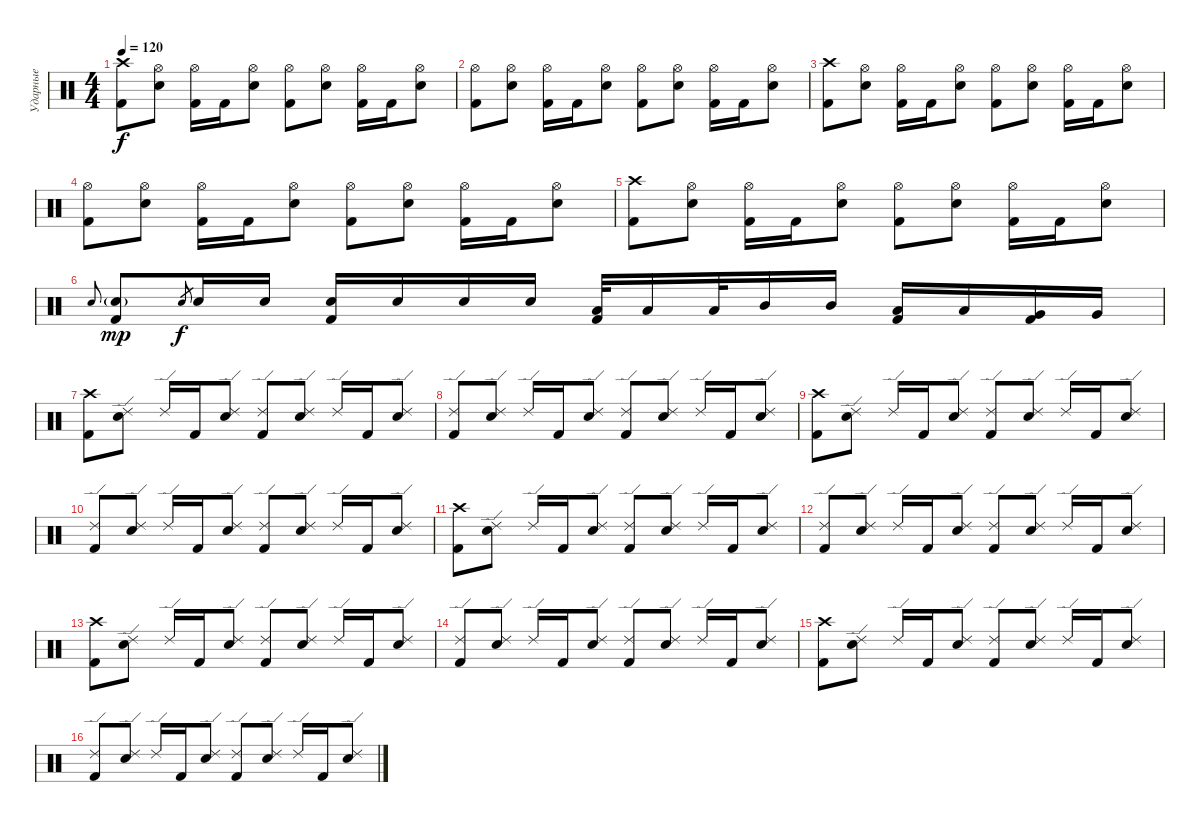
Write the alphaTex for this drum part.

\track ("Ударные" "Ударные") {instrument percussion}
\staff {score}
\articulation defaults
\ts (4 4)
\tempo 120
\clef neutral
\ks c
("Kick (hit) 2" "Crash high (hit)").8{dy f} ("Electric Snare (hit)" "Hi-Hat (open)").8 ("Kick (hit) 2" "Hi-Hat (open)").16 "Kick (hit) 2".16 ("Electric Snare (hit)" "Hi-Hat (open)").8 ("Kick (hit) 2" "Hi-Hat (open)").8 ("Electric Snare (hit)" "Hi-Hat (open)").8 ("Kick (hit) 2" "Hi-Hat (open)").16 "Kick (hit) 2".16 ("Electric Snare (hit)" "Hi-Hat (open)").8 |
("Kick (hit) 2" "Hi-Hat (open)").8 ("Electric Snare (hit)" "Hi-Hat (open)").8 ("Kick (hit) 2" "Hi-Hat (open)").16 "Kick (hit) 2".16 ("Electric Snare (hit)" "Hi-Hat (open)").8 ("Kick (hit) 2" "Hi-Hat (open)").8 ("Electric Snare (hit)" "Hi-Hat (open)").8 ("Kick (hit) 2" "Hi-Hat (open)").16 "Kick (hit) 2".16 ("Electric Snare (hit)" "Hi-Hat (open)").8 |
("Kick (hit) 2" "Crash high (hit)").8 ("Electric Snare (hit)" "Hi-Hat (open)").8 ("Kick (hit) 2" "Hi-Hat (open)").16 "Kick (hit) 2".16 ("Electric Snare (hit)" "Hi-Hat (open)").8 ("Kick (hit) 2" "Hi-Hat (open)").8 ("Electric Snare (hit)" "Hi-Hat (open)").8 ("Kick (hit) 2" "Hi-Hat (open)").16 "Kick (hit) 2".16 ("Electric Snare (hit)" "Hi-Hat (open)").8 |
("Kick (hit) 2" "Hi-Hat (open)").8 ("Electric Snare (hit)" "Hi-Hat (open)").8 ("Kick (hit) 2" "Hi-Hat (open)").16 "Kick (hit) 2".16 ("Electric Snare (hit)" "Hi-Hat (open)").8 ("Kick (hit) 2" "Hi-Hat (open)").8 ("Electric Snare (hit)" "Hi-Hat (open)").8 ("Kick (hit) 2" "Hi-Hat (open)").16 "Kick (hit) 2".16 ("Electric Snare (hit)" "Hi-Hat (open)").8 |
("Kick (hit) 2" "Crash high (hit)").8 ("Electric Snare (hit)" "Hi-Hat (open)").8 ("Kick (hit) 2" "Hi-Hat (open)").16 "Kick (hit) 2".16 ("Electric Snare (hit)" "Hi-Hat (open)").8 ("Kick (hit) 2" "Hi-Hat (open)").8 ("Electric Snare (hit)" "Hi-Hat (open)").8 ("Kick (hit) 2" "Hi-Hat (open)").16 "Kick (hit) 2".16 ("Electric Snare (hit)" "Hi-Hat (open)").8 |
"Electric Snare (hit)".8{gr onbeat} ("Kick (hit) 2" "Electric Snare (hit)"{g}).8{dy mp} "Electric Snare (hit)".8{gr dy f} "Electric Snare (hit)".16 "Electric Snare (hit)".16 ("Electric Snare (hit)" "Kick (hit) 2").16 "Electric Snare (hit)".16 "Electric Snare (hit)".16 "Electric Snare (hit)".16 ("Low Tom (hit)" "Kick (hit) 2").32 "Low Tom (hit)".16 "Low Tom (hit)".32 "Mid Tom (hit)".16 "Mid Tom (hit)".16 ("Low Tom (hit)" "Kick (hit) 2").16 "Low Tom (hit)".16 ("Very Low Tom (hit)" "Kick (hit) 2").16 "Very Low Tom (hit)".16 |
("Kick (hit) 2" "Crash high (hit)").8 ("Electric Snare (hit)" "Ride (edge) 2").8 "Ride (edge) 2".16 "Kick (hit) 2".16 ("Electric Snare (hit)" "Ride (edge) 2").8 ("Kick (hit) 2" "Ride (edge) 2").8 ("Electric Snare (hit)" "Ride (edge) 2").8 "Ride (edge) 2".16 "Kick (hit) 2".16 ("Electric Snare (hit)" "Ride (edge) 2").8 |
("Kick (hit) 2" "Ride (edge) 2").8 ("Electric Snare (hit)" "Ride (edge) 2").8 "Ride (edge) 2".16 "Kick (hit) 2".16 ("Electric Snare (hit)" "Ride (edge) 2").8 ("Kick (hit) 2" "Ride (edge) 2").8 ("Electric Snare (hit)" "Ride (edge) 2").8 "Ride (edge) 2".16 "Kick (hit) 2".16 ("Electric Snare (hit)" "Ride (edge) 2").8 |
("Kick (hit) 2" "Crash high (hit)").8 ("Electric Snare (hit)" "Ride (edge) 2").8 "Ride (edge) 2".16 "Kick (hit) 2".16 ("Electric Snare (hit)" "Ride (edge) 2").8 ("Kick (hit) 2" "Ride (edge) 2").8 ("Electric Snare (hit)" "Ride (edge) 2").8 "Ride (edge) 2".16 "Kick (hit) 2".16 ("Electric Snare (hit)" "Ride (edge) 2").8 |
("Kick (hit) 2" "Ride (edge) 2").8 ("Electric Snare (hit)" "Ride (edge) 2").8 "Ride (edge) 2".16 "Kick (hit) 2".16 ("Electric Snare (hit)" "Ride (edge) 2").8 ("Kick (hit) 2" "Ride (edge) 2").8 ("Electric Snare (hit)" "Ride (edge) 2").8 "Ride (edge) 2".16 "Kick (hit) 2".16 ("Electric Snare (hit)" "Ride (edge) 2").8 |
("Kick (hit) 2" "Crash high (hit)").8 ("Electric Snare (hit)" "Ride (edge) 2").8 "Ride (edge) 2".16 "Kick (hit) 2".16 ("Electric Snare (hit)" "Ride (edge) 2").8 ("Kick (hit) 2" "Ride (edge) 2").8 ("Electric Snare (hit)" "Ride (edge) 2").8 "Ride (edge) 2".16 "Kick (hit) 2".16 ("Electric Snare (hit)" "Ride (edge) 2").8 |
("Kick (hit) 2" "Ride (edge) 2").8 ("Electric Snare (hit)" "Ride (edge) 2").8 "Ride (edge) 2".16 "Kick (hit) 2".16 ("Electric Snare (hit)" "Ride (edge) 2").8 ("Kick (hit) 2" "Ride (edge) 2").8 ("Electric Snare (hit)" "Ride (edge) 2").8 "Ride (edge) 2".16 "Kick (hit) 2".16 ("Electric Snare (hit)" "Ride (edge) 2").8 |
("Kick (hit) 2" "Crash high (hit)").8 ("Electric Snare (hit)" "Ride (edge) 2").8 "Ride (edge) 2".16 "Kick (hit) 2".16 ("Electric Snare (hit)" "Ride (edge) 2").8 ("Kick (hit) 2" "Ride (edge) 2").8 ("Electric Snare (hit)" "Ride (edge) 2").8 "Ride (edge) 2".16 "Kick (hit) 2".16 ("Electric Snare (hit)" "Ride (edge) 2").8 |
("Kick (hit) 2" "Ride (edge) 2").8 ("Electric Snare (hit)" "Ride (edge) 2").8 "Ride (edge) 2".16 "Kick (hit) 2".16 ("Electric Snare (hit)" "Ride (edge) 2").8 ("Kick (hit) 2" "Ride (edge) 2").8 ("Electric Snare (hit)" "Ride (edge) 2").8 "Ride (edge) 2".16 "Kick (hit) 2".16 ("Electric Snare (hit)" "Ride (edge) 2").8 |
("Kick (hit) 2" "Crash high (hit)").8 ("Electric Snare (hit)" "Ride (edge) 2").8 "Ride (edge) 2".16 "Kick (hit) 2".16 ("Electric Snare (hit)" "Ride (edge) 2").8 ("Kick (hit) 2" "Ride (edge) 2").8 ("Electric Snare (hit)" "Ride (edge) 2").8 "Ride (edge) 2".16 "Kick (hit) 2".16 ("Electric Snare (hit)" "Ride (edge) 2").8 |
("Kick (hit) 2" "Ride (edge) 2").8 ("Electric Snare (hit)" "Ride (edge) 2").8 "Ride (edge) 2".16 "Kick (hit) 2".16 ("Electric Snare (hit)" "Ride (edge) 2").8 ("Kick (hit) 2" "Ride (edge) 2").8 ("Electric Snare (hit)" "Ride (edge) 2").8 "Ride (edge) 2".16 "Kick (hit) 2".16 ("Electric Snare (hit)" "Ride (edge) 2").8
